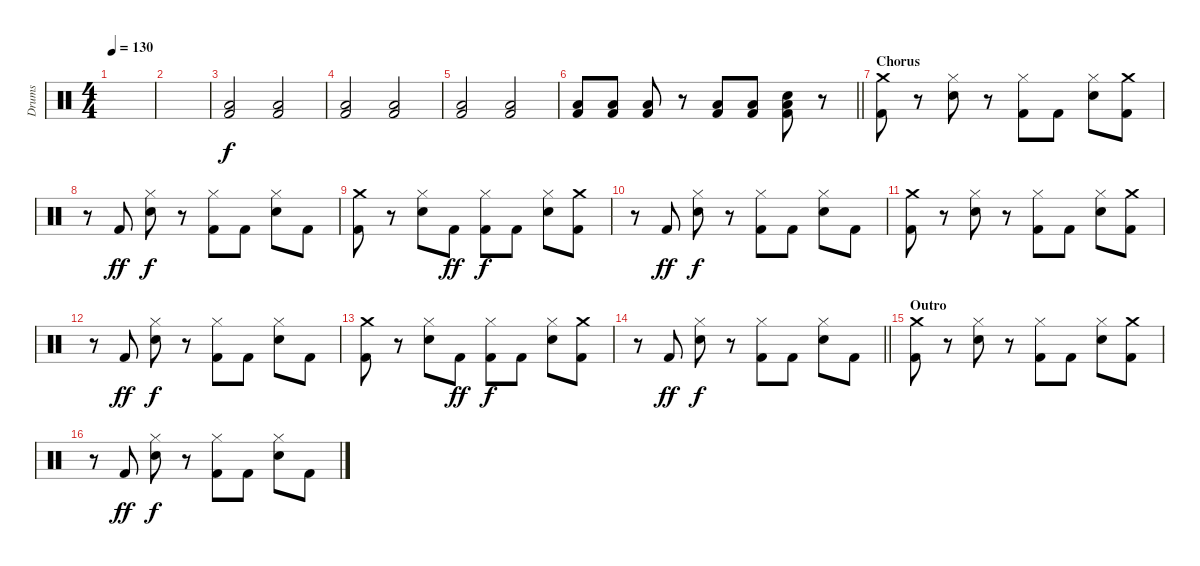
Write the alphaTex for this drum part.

\track ("Drums" "Drums") {instrument percussion}
\staff {score}
\articulation defaults
\ts (4 4)
\tempo 130
\clef neutral
\ks c
|
|
("Low Floor Tom (hit)" "Kick (hit) 2").2 ("Low Floor Tom (hit)" "Kick (hit) 2").2 |
("Low Floor Tom (hit)" "Kick (hit) 2").2 ("Low Floor Tom (hit)" "Kick (hit) 2").2 |
("Low Floor Tom (hit)" "Kick (hit) 2").2 ("Low Floor Tom (hit)" "Kick (hit) 2").2 |
\barLineRight lightlight
("Low Floor Tom (hit)" "Kick (hit) 2").8 ("Low Floor Tom (hit)" "Kick (hit) 2").8 ("Low Floor Tom (hit)" "Kick (hit) 2").8 r.8 ("Low Floor Tom (hit)" "Kick (hit) 2").8 ("Low Floor Tom (hit)" "Kick (hit) 2").8 ("Snare (hit) 2" "Low Floor Tom (hit)" "Kick (hit) 2").8 r.8 |
\section ("" "Chorus")
("Crash medium (hit)" "Kick (hit) 2").8 r.8 ("Hi-Hat (closed)" "Snare (hit) 2").8 r.8 ("Hi-Hat (closed)" "Kick (hit) 2").8 "Kick (hit) 2".8 ("Hi-Hat (closed)" "Snare (hit) 2").8 ("Crash medium (hit)" "Kick (hit) 2").8 |
r.8 "Kick (hit) 2".8{dy ff} ("Hi-Hat (closed)" "Snare (hit) 2").8{dy f} r.8 ("Hi-Hat (closed)" "Kick (hit) 2").8 "Kick (hit) 2".8 ("Hi-Hat (closed)" "Snare (hit) 2").8 "Kick (hit) 2".8 |
("Crash medium (hit)" "Kick (hit) 2").8 r.8 ("Hi-Hat (closed)" "Snare (hit) 2").8 "Kick (hit) 2".8{dy ff} ("Hi-Hat (closed)" "Kick (hit) 2").8{dy f} "Kick (hit) 2".8 ("Hi-Hat (closed)" "Snare (hit) 2").8 ("Crash medium (hit)" "Kick (hit) 2").8 |
r.8 "Kick (hit) 2".8{dy ff} ("Hi-Hat (closed)" "Snare (hit) 2").8{dy f} r.8 ("Hi-Hat (closed)" "Kick (hit) 2").8 "Kick (hit) 2".8 ("Hi-Hat (closed)" "Snare (hit) 2").8 "Kick (hit) 2".8 |
("Crash medium (hit)" "Kick (hit) 2").8 r.8 ("Hi-Hat (closed)" "Snare (hit) 2").8 r.8 ("Hi-Hat (closed)" "Kick (hit) 2").8 "Kick (hit) 2".8 ("Hi-Hat (closed)" "Snare (hit) 2").8 ("Crash medium (hit)" "Kick (hit) 2").8 |
r.8 "Kick (hit) 2".8{dy ff} ("Hi-Hat (closed)" "Snare (hit) 2").8{dy f} r.8 ("Hi-Hat (closed)" "Kick (hit) 2").8 "Kick (hit) 2".8 ("Hi-Hat (closed)" "Snare (hit) 2").8 "Kick (hit) 2".8 |
("Crash medium (hit)" "Kick (hit) 2").8 r.8 ("Hi-Hat (closed)" "Snare (hit) 2").8 "Kick (hit) 2".8{dy ff} ("Hi-Hat (closed)" "Kick (hit) 2").8{dy f} "Kick (hit) 2".8 ("Hi-Hat (closed)" "Snare (hit) 2").8 ("Crash medium (hit)" "Kick (hit) 2").8 |
\barLineRight lightlight
r.8 "Kick (hit) 2".8{dy ff} ("Hi-Hat (closed)" "Snare (hit) 2").8{dy f} r.8 ("Hi-Hat (closed)" "Kick (hit) 2").8 "Kick (hit) 2".8 ("Hi-Hat (closed)" "Snare (hit) 2").8 "Kick (hit) 2".8 |
\section ("" "Outro")
("Crash medium (hit)" "Kick (hit) 2").8 r.8 ("Hi-Hat (closed)" "Snare (hit) 2").8 r.8 ("Hi-Hat (closed)" "Kick (hit) 2").8 "Kick (hit) 2".8 ("Hi-Hat (closed)" "Snare (hit) 2").8 ("Crash medium (hit)" "Kick (hit) 2").8 |
r.8 "Kick (hit) 2".8{dy ff} ("Hi-Hat (closed)" "Snare (hit) 2").8{dy f} r.8 ("Hi-Hat (closed)" "Kick (hit) 2").8 "Kick (hit) 2".8 ("Hi-Hat (closed)" "Snare (hit) 2").8 "Kick (hit) 2".8
